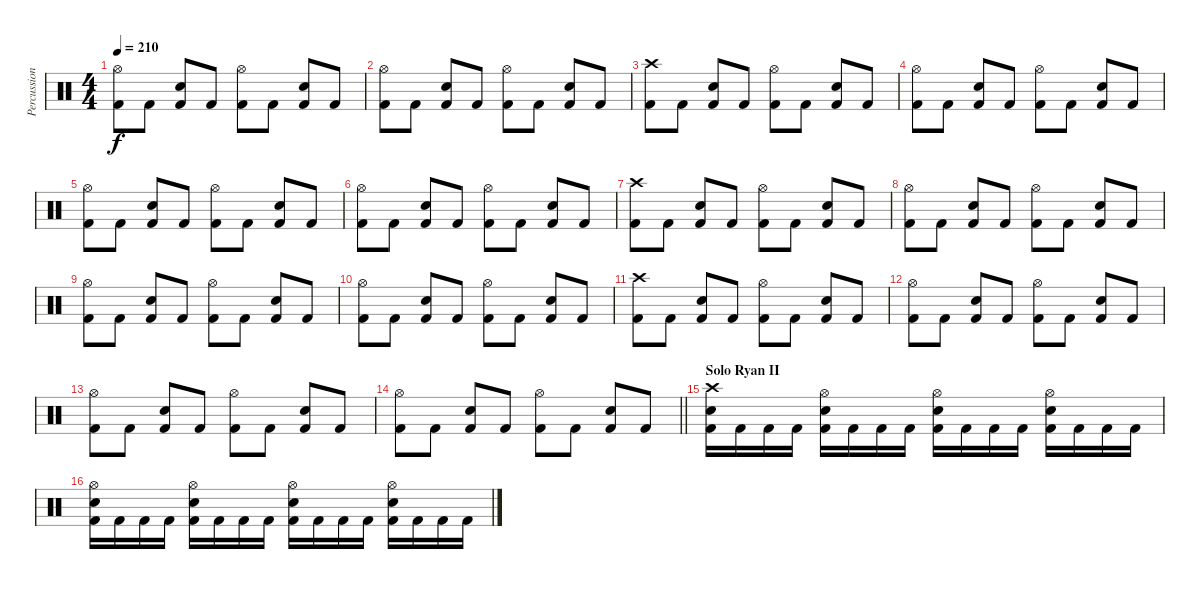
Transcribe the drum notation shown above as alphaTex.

\track ("Percussion" "Percussion") {instrument percussion}
\staff {score}
\articulation defaults
\ts (4 4)
\tempo 210
\clef neutral
\ks c
("Hi-Hat (open)" "Kick (hit) 2").8{dy f} "Kick (hit) 2".8 ("Snare (hit) 2" "Kick (hit) 2").8 "Kick (hit) 2".8 ("Hi-Hat (open)" "Kick (hit) 2").8 "Kick (hit) 2".8 ("Snare (hit) 2" "Kick (hit) 2").8 "Kick (hit) 2".8 |
("Hi-Hat (open)" "Kick (hit) 2").8 "Kick (hit) 2".8 ("Snare (hit) 2" "Kick (hit) 2").8 "Kick (hit) 2".8 ("Hi-Hat (open)" "Kick (hit) 2").8 "Kick (hit) 2".8 ("Snare (hit) 2" "Kick (hit) 2").8 "Kick (hit) 2".8 |
("Crash high (hit)" "Kick (hit) 2").8 "Kick (hit) 2".8 ("Snare (hit) 2" "Kick (hit) 2").8 "Kick (hit) 2".8 ("Hi-Hat (open)" "Kick (hit) 2").8 "Kick (hit) 2".8 ("Snare (hit) 2" "Kick (hit) 2").8 "Kick (hit) 2".8 |
("Hi-Hat (open)" "Kick (hit) 2").8 "Kick (hit) 2".8 ("Snare (hit) 2" "Kick (hit) 2").8 "Kick (hit) 2".8 ("Hi-Hat (open)" "Kick (hit) 2").8 "Kick (hit) 2".8 ("Snare (hit) 2" "Kick (hit) 2").8 "Kick (hit) 2".8 |
("Hi-Hat (open)" "Kick (hit) 2").8 "Kick (hit) 2".8 ("Snare (hit) 2" "Kick (hit) 2").8 "Kick (hit) 2".8 ("Hi-Hat (open)" "Kick (hit) 2").8 "Kick (hit) 2".8 ("Snare (hit) 2" "Kick (hit) 2").8 "Kick (hit) 2".8 |
("Hi-Hat (open)" "Kick (hit) 2").8 "Kick (hit) 2".8 ("Snare (hit) 2" "Kick (hit) 2").8 "Kick (hit) 2".8 ("Hi-Hat (open)" "Kick (hit) 2").8 "Kick (hit) 2".8 ("Snare (hit) 2" "Kick (hit) 2").8 "Kick (hit) 2".8 |
("Crash high (hit)" "Kick (hit) 2").8 "Kick (hit) 2".8 ("Snare (hit) 2" "Kick (hit) 2").8 "Kick (hit) 2".8 ("Hi-Hat (open)" "Kick (hit) 2").8 "Kick (hit) 2".8 ("Snare (hit) 2" "Kick (hit) 2").8 "Kick (hit) 2".8 |
("Hi-Hat (open)" "Kick (hit) 2").8 "Kick (hit) 2".8 ("Snare (hit) 2" "Kick (hit) 2").8 "Kick (hit) 2".8 ("Hi-Hat (open)" "Kick (hit) 2").8 "Kick (hit) 2".8 ("Snare (hit) 2" "Kick (hit) 2").8 "Kick (hit) 2".8 |
("Hi-Hat (open)" "Kick (hit) 2").8 "Kick (hit) 2".8 ("Snare (hit) 2" "Kick (hit) 2").8 "Kick (hit) 2".8 ("Hi-Hat (open)" "Kick (hit) 2").8 "Kick (hit) 2".8 ("Snare (hit) 2" "Kick (hit) 2").8 "Kick (hit) 2".8 |
("Hi-Hat (open)" "Kick (hit) 2").8 "Kick (hit) 2".8 ("Snare (hit) 2" "Kick (hit) 2").8 "Kick (hit) 2".8 ("Hi-Hat (open)" "Kick (hit) 2").8 "Kick (hit) 2".8 ("Snare (hit) 2" "Kick (hit) 2").8 "Kick (hit) 2".8 |
("Crash high (hit)" "Kick (hit) 2").8 "Kick (hit) 2".8 ("Snare (hit) 2" "Kick (hit) 2").8 "Kick (hit) 2".8 ("Hi-Hat (open)" "Kick (hit) 2").8 "Kick (hit) 2".8 ("Snare (hit) 2" "Kick (hit) 2").8 "Kick (hit) 2".8 |
("Hi-Hat (open)" "Kick (hit) 2").8 "Kick (hit) 2".8 ("Snare (hit) 2" "Kick (hit) 2").8 "Kick (hit) 2".8 ("Hi-Hat (open)" "Kick (hit) 2").8 "Kick (hit) 2".8 ("Snare (hit) 2" "Kick (hit) 2").8 "Kick (hit) 2".8 |
("Hi-Hat (open)" "Kick (hit) 2").8 "Kick (hit) 2".8 ("Snare (hit) 2" "Kick (hit) 2").8 "Kick (hit) 2".8 ("Hi-Hat (open)" "Kick (hit) 2").8 "Kick (hit) 2".8 ("Snare (hit) 2" "Kick (hit) 2").8 "Kick (hit) 2".8 |
\barLineRight lightlight
("Hi-Hat (open)" "Kick (hit) 2").8 "Kick (hit) 2".8 ("Snare (hit) 2" "Kick (hit) 2").8 "Kick (hit) 2".8 ("Hi-Hat (open)" "Kick (hit) 2").8 "Kick (hit) 2".8 ("Snare (hit) 2" "Kick (hit) 2").8 "Kick (hit) 2".8 |
\section ("" "Solo Ryan II")
("Crash high (hit)" "Snare (hit) 2" "Kick (hit) 2").16 "Kick (hit) 2".16 "Kick (hit) 2".16 "Kick (hit) 2".16 ("Hi-Hat (open)" "Snare (hit) 2" "Kick (hit) 2").16 "Kick (hit) 2".16 "Kick (hit) 2".16 "Kick (hit) 2".16 ("Hi-Hat (open)" "Snare (hit) 2" "Kick (hit) 2").16 "Kick (hit) 2".16 "Kick (hit) 2".16 "Kick (hit) 2".16 ("Hi-Hat (open)" "Snare (hit) 2" "Kick (hit) 2").16 "Kick (hit) 2".16 "Kick (hit) 2".16 "Kick (hit) 2".16 |
("Hi-Hat (open)" "Snare (hit) 2" "Kick (hit) 2").16 "Kick (hit) 2".16 "Kick (hit) 2".16 "Kick (hit) 2".16 ("Hi-Hat (open)" "Snare (hit) 2" "Kick (hit) 2").16 "Kick (hit) 2".16 "Kick (hit) 2".16 "Kick (hit) 2".16 ("Hi-Hat (open)" "Snare (hit) 2" "Kick (hit) 2").16 "Kick (hit) 2".16 "Kick (hit) 2".16 "Kick (hit) 2".16 ("Hi-Hat (open)" "Snare (hit) 2" "Kick (hit) 2").16 "Kick (hit) 2".16 "Kick (hit) 2".16 "Kick (hit) 2".16
